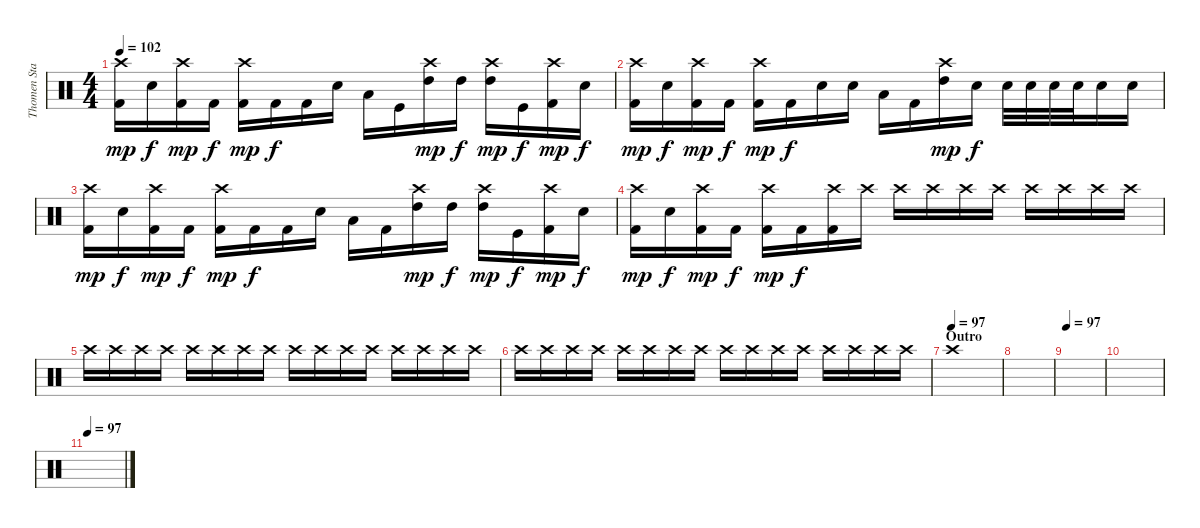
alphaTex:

\track ("Thomen Stauch" "Thomen Sta") {instrument percussion}
\staff {score}
\articulation defaults
\ts (4 4)
\tempo 102
\clef neutral
\ks c
("Crash high (hit)" "Kick (hit) 2").16{dy mp} "Snare (hit)"{x}.16{dy f} ("Crash high (hit)" "Kick (hit) 2").16{dy mp} "Kick (hit) 2".16{dy f} ("Crash high (hit)" "Kick (hit) 2").16{dy mp} "Kick (hit) 2".16{dy f} "Kick (hit) 2".16 "Snare (hit)"{x}.16 "Low Floor Tom (hit)"{x}.16 "Kick (hit)".16 ("Crash high (hit)" "High Tom (hit)").16{dy mp} "High Tom (hit)"{x}.16{dy f} ("Crash high (hit)" "High Tom (hit)").16{dy mp} "Kick (hit)".16{dy f} ("Crash high (hit)" "Kick (hit) 2").16{dy mp} "Snare (hit)"{x}.16{dy f} |
("Crash high (hit)" "Kick (hit) 2").16{dy mp} "Snare (hit)"{x}.16{dy f} ("Crash high (hit)" "Kick (hit) 2").16{dy mp} "Kick (hit) 2"{x}.16{dy f} ("Crash high (hit)" "Kick (hit) 2").16{dy mp} "Kick (hit) 2"{x}.16{dy f} "Snare (hit) 2".16 "Snare (hit)"{x}.16 "Low Floor Tom (hit)"{x}.16 "Kick (hit) 2".16 ("Crash high (hit)" "High Tom (hit)").16{dy mp} "Snare (hit) 2"{x}.16{dy f} "Snare (hit) 2".32 "Snare (hit) 2".32 "Snare (hit) 2".32 "Snare (hit) 2".32 "Snare (hit) 2".16 "Snare (hit) 2".16 |
("Crash high (hit)" "Kick (hit) 2").16{dy mp} "Snare (hit)"{x}.16{dy f} ("Crash high (hit)" "Kick (hit) 2").16{dy mp} "Kick (hit) 2".16{dy f} ("Crash high (hit)" "Kick (hit) 2").16{dy mp} "Kick (hit) 2".16{dy f} "Kick (hit) 2".16 "Snare (hit)"{x}.16 "Low Floor Tom (hit)"{x}.16 "Kick (hit) 2".16 ("Crash high (hit)" "High Tom (hit)").16{dy mp} "High Tom (hit)"{x}.16{dy f} ("Crash high (hit)" "High Tom (hit)").16{dy mp} "Kick (hit)".16{dy f} ("Crash high (hit)" "Kick (hit) 2").16{dy mp} "Snare (hit)"{x}.16{dy f} |
("Crash high (hit)" "Kick (hit) 2").16{dy mp} "Snare (hit)"{x}.16{dy f} ("Crash high (hit)" "Kick (hit) 2").16{dy mp} "Kick (hit) 2"{x}.16{dy f} ("Crash high (hit)" "Kick (hit) 2").16{dy mp} "Kick (hit) 2"{x}.16{dy f} ("Crash high (hit)" "Kick (hit) 2").16 "Crash high (hit)".16 "Crash high (hit)".16 "Crash high (hit)".16 "Crash high (hit)".16 "Crash high (hit)".16 "Crash high (hit)".16 "Crash high (hit)".16 "Crash high (hit)".16 "Crash high (hit)".16 |
"Crash high (hit)".16 "Crash high (hit)".16 "Crash high (hit)".16 "Crash high (hit)".16 "Crash high (hit)".16 "Crash high (hit)".16 "Crash high (hit)".16 "Crash high (hit)".16 "Crash high (hit)".16 "Crash high (hit)".16 "Crash high (hit)".16 "Crash high (hit)".16 "Crash high (hit)".16 "Crash high (hit)".16 "Crash high (hit)".16 "Crash high (hit)".16 |
"Crash high (hit)".16 "Crash high (hit)".16 "Crash high (hit)".16 "Crash high (hit)".16 "Crash high (hit)".16 "Crash high (hit)".16 "Crash high (hit)".16 "Crash high (hit)".16 "Crash high (hit)".16 "Crash high (hit)".16 "Crash high (hit)".16 "Crash high (hit)".16 "Crash high (hit)".16 "Crash high (hit)".16 "Crash high (hit)".16 "Crash high (hit)".16 |
\section ("" "Outro")
\tempo (97)
"Crash high (hit)".1 |
|
\tempo 97
|
|
\tempo 97
